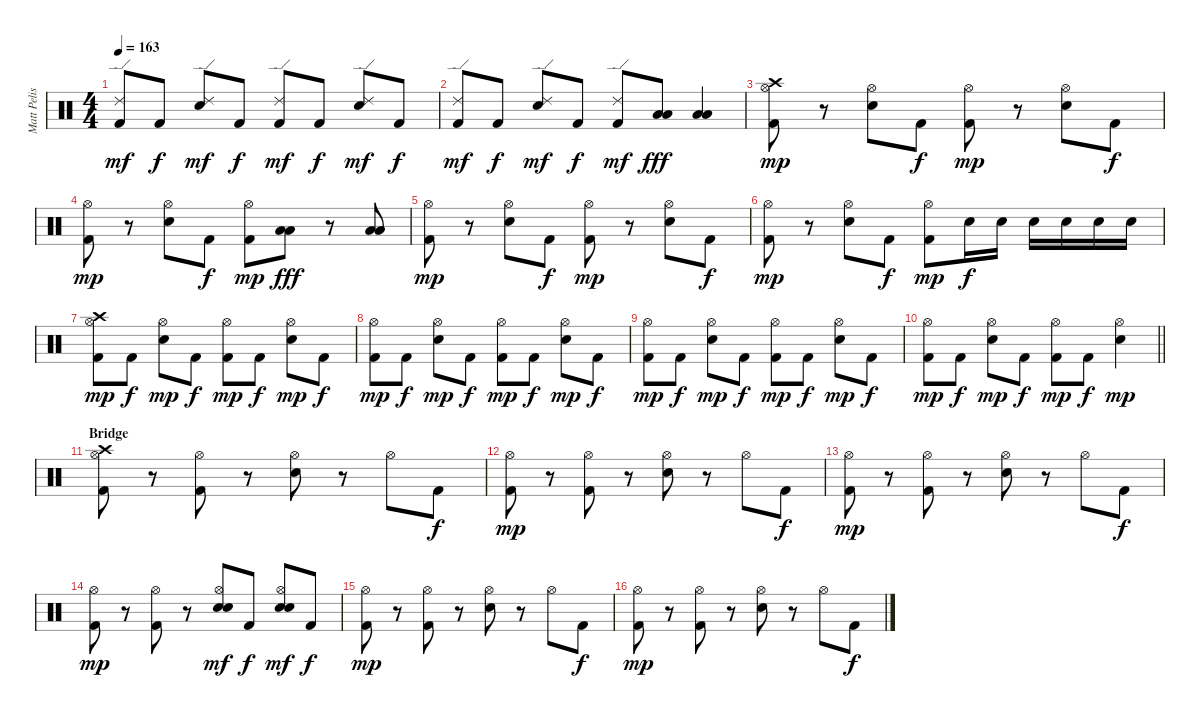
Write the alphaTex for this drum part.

\track ("Matt Pelissier (Drums)" "Matt Pelis") {instrument percussion}
\staff {score}
\articulation defaults
\ts (4 4)
\tempo 163
\clef neutral
\ks c
("Ride (edge) 2" "Kick (hit) 2").8{dy mf} "Kick (hit) 2".8{dy f} ("Ride (edge) 2" "Electric Snare (hit)").8{dy mf} "Kick (hit) 2".8{dy f} ("Ride (edge) 2" "Kick (hit) 2").8{dy mf} "Kick (hit) 2".8{dy f} ("Ride (edge) 2" "Electric Snare (hit)").8{dy mf} "Kick (hit) 2".8{dy f} |
("Ride (edge) 2" "Kick (hit) 2").8{dy mf} "Kick (hit) 2".8{dy f} ("Ride (edge) 2" "Electric Snare (hit)").8{dy mf} "Kick (hit) 2".8{dy f} ("Ride (edge) 2" "Kick (hit) 2").8{dy mf} ("Low Floor Tom (hit)" "Low Floor Tom (hit)").8{dy fff} ("Low Floor Tom (hit)" "Low Floor Tom (hit)").4 |
("Crash high (hit)" "Hi-Hat (open)" "Kick (hit) 2").8{dy mp} r.8 ("Hi-Hat (open)" "Electric Snare (hit)").8 "Kick (hit) 2".8{dy f} ("Hi-Hat (open)" "Kick (hit) 2").8{dy mp} r.8 ("Hi-Hat (open)" "Electric Snare (hit)").8 "Kick (hit) 2".8{dy f} |
("Hi-Hat (open)" "Kick (hit) 2").8{dy mp} r.8 ("Hi-Hat (open)" "Electric Snare (hit)").8 "Kick (hit) 2".8{dy f} ("Hi-Hat (open)" "Kick (hit) 2").8{dy mp} ("Low Floor Tom (hit)" "Low Floor Tom (hit)").8{dy fff} r.8 ("Low Floor Tom (hit)" "Low Floor Tom (hit)").8 |
("Hi-Hat (open)" "Kick (hit) 2").8{dy mp} r.8 ("Hi-Hat (open)" "Electric Snare (hit)").8 "Kick (hit) 2".8{dy f} ("Hi-Hat (open)" "Kick (hit) 2").8{dy mp} r.8 ("Hi-Hat (open)" "Electric Snare (hit)").8 "Kick (hit) 2".8{dy f} |
("Hi-Hat (open)" "Kick (hit) 2").8{dy mp} r.8 ("Hi-Hat (open)" "Electric Snare (hit)").8 "Kick (hit) 2".8{dy f} ("Hi-Hat (open)" "Kick (hit) 2").8{dy mp} "Electric Snare (hit)".16{dy f} "Electric Snare (hit)".16 "Electric Snare (hit)".16 "Electric Snare (hit)".16 "Electric Snare (hit)".16 "Electric Snare (hit)".16 |
("Crash high (hit)" "Hi-Hat (open)" "Kick (hit) 2").8{dy mp} "Kick (hit) 2".8{dy f} ("Hi-Hat (open)" "Electric Snare (hit)").8{dy mp} "Kick (hit) 2".8{dy f} ("Hi-Hat (open)" "Kick (hit) 2").8{dy mp} "Kick (hit) 2".8{dy f} ("Hi-Hat (open)" "Electric Snare (hit)").8{dy mp} "Kick (hit) 2".8{dy f} |
("Hi-Hat (open)" "Kick (hit) 2").8{dy mp} "Kick (hit) 2".8{dy f} ("Hi-Hat (open)" "Electric Snare (hit)").8{dy mp} "Kick (hit) 2".8{dy f} ("Hi-Hat (open)" "Kick (hit) 2").8{dy mp} "Kick (hit) 2".8{dy f} ("Hi-Hat (open)" "Electric Snare (hit)").8{dy mp} "Kick (hit) 2".8{dy f} |
("Hi-Hat (open)" "Kick (hit) 2").8{dy mp} "Kick (hit) 2".8{dy f} ("Hi-Hat (open)" "Electric Snare (hit)").8{dy mp} "Kick (hit) 2".8{dy f} ("Hi-Hat (open)" "Kick (hit) 2").8{dy mp} "Kick (hit) 2".8{dy f} ("Hi-Hat (open)" "Electric Snare (hit)").8{dy mp} "Kick (hit) 2".8{dy f} |
\barLineRight lightlight
("Hi-Hat (open)" "Kick (hit) 2").8{dy mp} "Kick (hit) 2".8{dy f} ("Hi-Hat (open)" "Electric Snare (hit)").8{dy mp} "Kick (hit) 2".8{dy f} ("Hi-Hat (open)" "Kick (hit) 2").8{dy mp} "Kick (hit) 2".8{dy f} ("Hi-Hat (open)" "Electric Snare (hit)").4{dy mp} |
\section ("" "Bridge")
("Crash high (hit)" "Hi-Hat (open)" "Kick (hit) 2").8 r.8 ("Hi-Hat (open)" "Kick (hit) 2").8 r.8 ("Hi-Hat (open)" "Electric Snare (hit)").8 r.8 "Hi-Hat (open)".8 "Kick (hit) 2".8{dy f} |
("Hi-Hat (open)" "Kick (hit) 2").8{dy mp} r.8 ("Hi-Hat (open)" "Kick (hit) 2").8 r.8 ("Hi-Hat (open)" "Electric Snare (hit)").8 r.8 "Hi-Hat (open)".8 "Kick (hit) 2".8{dy f} |
("Hi-Hat (open)" "Kick (hit) 2").8{dy mp} r.8 ("Hi-Hat (open)" "Kick (hit) 2").8 r.8 ("Hi-Hat (open)" "Electric Snare (hit)").8 r.8 "Hi-Hat (open)".8 "Kick (hit) 2".8{dy f} |
("Hi-Hat (open)" "Kick (hit) 2").8{dy mp} r.8 ("Hi-Hat (open)" "Kick (hit) 2").8 r.8 ("Hi-Hat (open)" "Snare (hit) 2" "Electric Snare (hit)").8{dy mf} "Kick (hit) 2".8{dy f} ("Hi-Hat (open)" "Snare (hit) 2" "Electric Snare (hit)").8{dy mf} "Kick (hit) 2".8{dy f} |
("Hi-Hat (open)" "Kick (hit) 2").8{dy mp} r.8 ("Hi-Hat (open)" "Kick (hit) 2").8 r.8 ("Hi-Hat (open)" "Electric Snare (hit)").8 r.8 "Hi-Hat (open)".8 "Kick (hit) 2".8{dy f} |
("Hi-Hat (open)" "Kick (hit) 2").8{dy mp} r.8 ("Hi-Hat (open)" "Kick (hit) 2").8 r.8 ("Hi-Hat (open)" "Electric Snare (hit)").8 r.8 "Hi-Hat (open)".8 "Kick (hit) 2".8{dy f}
